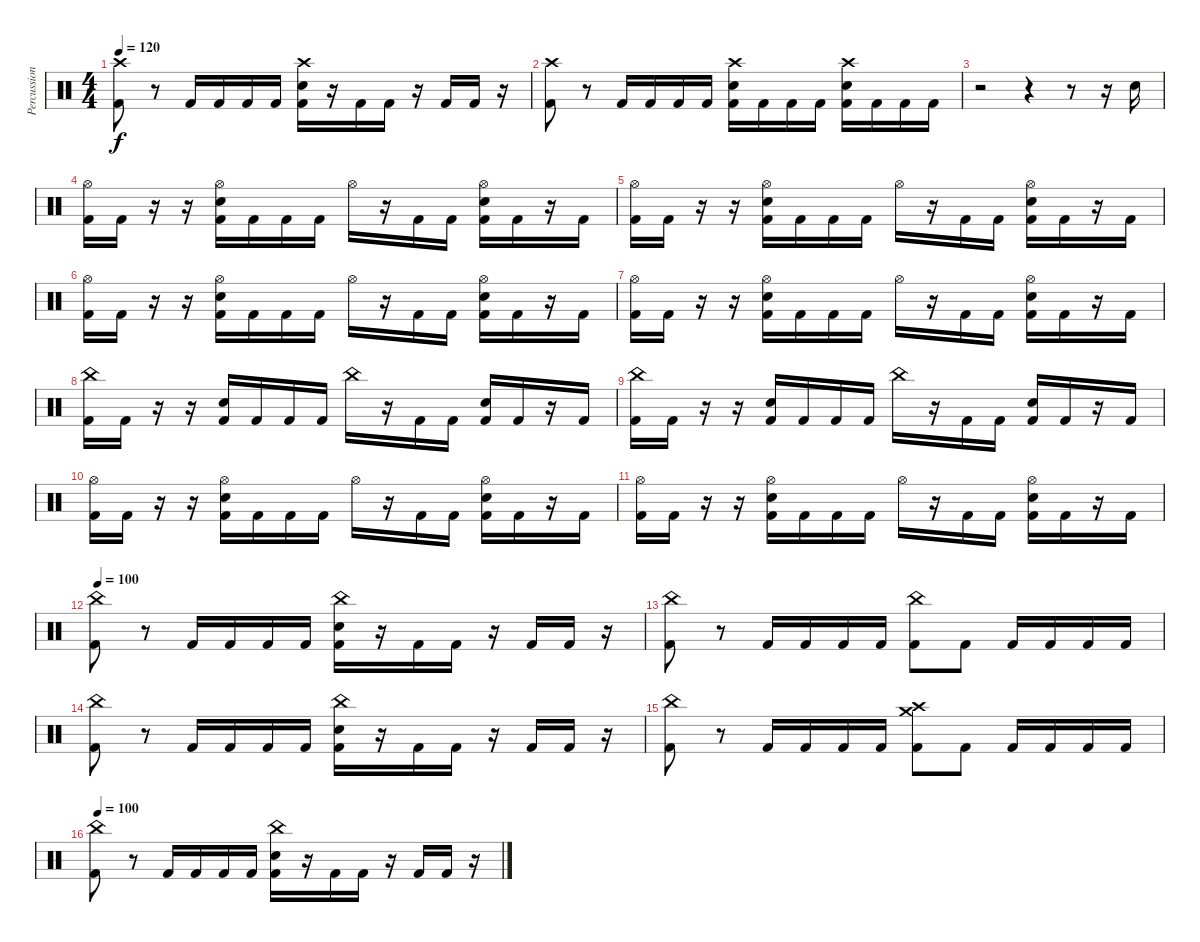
\track ("Percussion" "Percussion") {instrument percussion}
\staff {score}
\articulation defaults
\ts (4 4)
\tempo 120
\clef neutral
\ks c
("Crash high (hit)" "Kick (hit) 2").8{dy f} r.8 "Kick (hit) 2".16 "Kick (hit) 2".16 "Kick (hit) 2".16 "Kick (hit) 2".16 ("Crash high (hit)" "Electric Snare (hit)" "Kick (hit) 2").16 r.16 "Kick (hit) 2".16 "Kick (hit) 2".16 r.16 "Kick (hit) 2".16 "Kick (hit) 2".16 r.16 |
("Crash high (hit)" "Kick (hit) 2").8 r.8 "Kick (hit) 2".16 "Kick (hit) 2".16 "Kick (hit) 2".16 "Kick (hit) 2".16 ("Crash high (hit)" "Electric Snare (hit)" "Kick (hit) 2").16 "Kick (hit) 2".16 "Kick (hit) 2".16 "Kick (hit) 2".16 ("Crash high (hit)" "Electric Snare (hit)" "Kick (hit) 2").16 "Kick (hit) 2".16 "Kick (hit) 2".16 "Kick (hit) 2".16 |
r.2 r.4 r.8 r.16 "Electric Snare (hit)".16 |
("Hi-Hat (open)" "Kick (hit) 2").16 "Kick (hit) 2".16 r.16 r.16 ("Hi-Hat (open)" "Electric Snare (hit)" "Kick (hit) 2").16 "Kick (hit) 2".16 "Kick (hit) 2".16 "Kick (hit) 2".16 "Hi-Hat (open)".16 r.16 "Kick (hit) 2".16 "Kick (hit) 2".16 ("Hi-Hat (open)" "Electric Snare (hit)" "Kick (hit) 2").16 "Kick (hit) 2".16 r.16 "Kick (hit) 2".16 |
("Hi-Hat (open)" "Kick (hit) 2").16 "Kick (hit) 2".16 r.16 r.16 ("Hi-Hat (open)" "Electric Snare (hit)" "Kick (hit) 2").16 "Kick (hit) 2".16 "Kick (hit) 2".16 "Kick (hit) 2".16 "Hi-Hat (open)".16 r.16 "Kick (hit) 2".16 "Kick (hit) 2".16 ("Hi-Hat (open)" "Electric Snare (hit)" "Kick (hit) 2").16 "Kick (hit) 2".16 r.16 "Kick (hit) 2".16 |
("Hi-Hat (open)" "Kick (hit) 2").16 "Kick (hit) 2".16 r.16 r.16 ("Hi-Hat (open)" "Electric Snare (hit)" "Kick (hit) 2").16 "Kick (hit) 2".16 "Kick (hit) 2".16 "Kick (hit) 2".16 "Hi-Hat (open)".16 r.16 "Kick (hit) 2".16 "Kick (hit) 2".16 ("Hi-Hat (open)" "Electric Snare (hit)" "Kick (hit) 2").16 "Kick (hit) 2".16 r.16 "Kick (hit) 2".16 |
("Hi-Hat (open)" "Kick (hit) 2").16 "Kick (hit) 2".16 r.16 r.16 ("Hi-Hat (open)" "Electric Snare (hit)" "Kick (hit) 2").16 "Kick (hit) 2".16 "Kick (hit) 2".16 "Kick (hit) 2".16 "Hi-Hat (open)".16 r.16 "Kick (hit) 2".16 "Kick (hit) 2".16 ("Hi-Hat (open)" "Electric Snare (hit)" "Kick (hit) 2").16 "Kick (hit) 2".16 r.16 "Kick (hit) 2".16 |
("China (hit)" "Kick (hit) 2").16 "Kick (hit) 2".16 r.16 r.16 ("Electric Snare (hit)" "Kick (hit) 2").16 "Kick (hit) 2".16 "Kick (hit) 2".16 "Kick (hit) 2".16 "China (hit)".16 r.16 "Kick (hit) 2".16 "Kick (hit) 2".16 ("Electric Snare (hit)" "Kick (hit) 2").16 "Kick (hit) 2".16 r.16 "Kick (hit) 2".16 |
("China (hit)" "Kick (hit) 2").16 "Kick (hit) 2".16 r.16 r.16 ("Electric Snare (hit)" "Kick (hit) 2").16 "Kick (hit) 2".16 "Kick (hit) 2".16 "Kick (hit) 2".16 "China (hit)".16 r.16 "Kick (hit) 2".16 "Kick (hit) 2".16 ("Electric Snare (hit)" "Kick (hit) 2").16 "Kick (hit) 2".16 r.16 "Kick (hit) 2".16 |
("Hi-Hat (open)" "Kick (hit) 2").16 "Kick (hit) 2".16 r.16 r.16 ("Hi-Hat (open)" "Electric Snare (hit)" "Kick (hit) 2").16 "Kick (hit) 2".16 "Kick (hit) 2".16 "Kick (hit) 2".16 "Hi-Hat (open)".16 r.16 "Kick (hit) 2".16 "Kick (hit) 2".16 ("Hi-Hat (open)" "Electric Snare (hit)" "Kick (hit) 2").16 "Kick (hit) 2".16 r.16 "Kick (hit) 2".16 |
("Hi-Hat (open)" "Kick (hit) 2").16 "Kick (hit) 2".16 r.16 r.16 ("Hi-Hat (open)" "Electric Snare (hit)" "Kick (hit) 2").16 "Kick (hit) 2".16 "Kick (hit) 2".16 "Kick (hit) 2".16 "Hi-Hat (open)".16 r.16 "Kick (hit) 2".16 "Kick (hit) 2".16 ("Hi-Hat (open)" "Electric Snare (hit)" "Kick (hit) 2").16 "Kick (hit) 2".16 r.16 "Kick (hit) 2".16 |
\tempo 100
("China (hit)" "Kick (hit) 2").8 r.8 "Kick (hit) 2".16 "Kick (hit) 2".16 "Kick (hit) 2".16 "Kick (hit) 2".16 ("China (hit)" "Electric Snare (hit)" "Kick (hit) 2").16 r.16 "Kick (hit) 2".16 "Kick (hit) 2".16 r.16 "Kick (hit) 2".16 "Kick (hit) 2".16 r.16 |
("China (hit)" "Kick (hit) 2").8 r.8 "Kick (hit) 2".16 "Kick (hit) 2".16 "Kick (hit) 2".16 "Kick (hit) 2".16 ("China (hit)" "Kick (hit) 2").8 "Kick (hit) 2".8 "Kick (hit) 2".16 "Kick (hit) 2".16 "Kick (hit) 2".16 "Kick (hit) 2".16 |
("China (hit)" "Kick (hit) 2").8 r.8 "Kick (hit) 2".16 "Kick (hit) 2".16 "Kick (hit) 2".16 "Kick (hit) 2".16 ("China (hit)" "Electric Snare (hit)" "Kick (hit) 2").16 r.16 "Kick (hit) 2".16 "Kick (hit) 2".16 r.16 "Kick (hit) 2".16 "Kick (hit) 2".16 r.16 |
("China (hit)" "Kick (hit) 2").8 r.8 "Kick (hit) 2".16 "Kick (hit) 2".16 "Kick (hit) 2".16 "Kick (hit) 2".16 ("Crash medium (hit)" "Crash high (hit)" "Kick (hit) 2").8 "Kick (hit) 2".8 "Kick (hit) 2".16 "Kick (hit) 2".16 "Kick (hit) 2".16 "Kick (hit) 2".16 |
\tempo 100
("China (hit)" "Kick (hit) 2").8 r.8 "Kick (hit) 2".16 "Kick (hit) 2".16 "Kick (hit) 2".16 "Kick (hit) 2".16 ("China (hit)" "Electric Snare (hit)" "Kick (hit) 2").16 r.16 "Kick (hit) 2".16 "Kick (hit) 2".16 r.16 "Kick (hit) 2".16 "Kick (hit) 2".16 r.16
